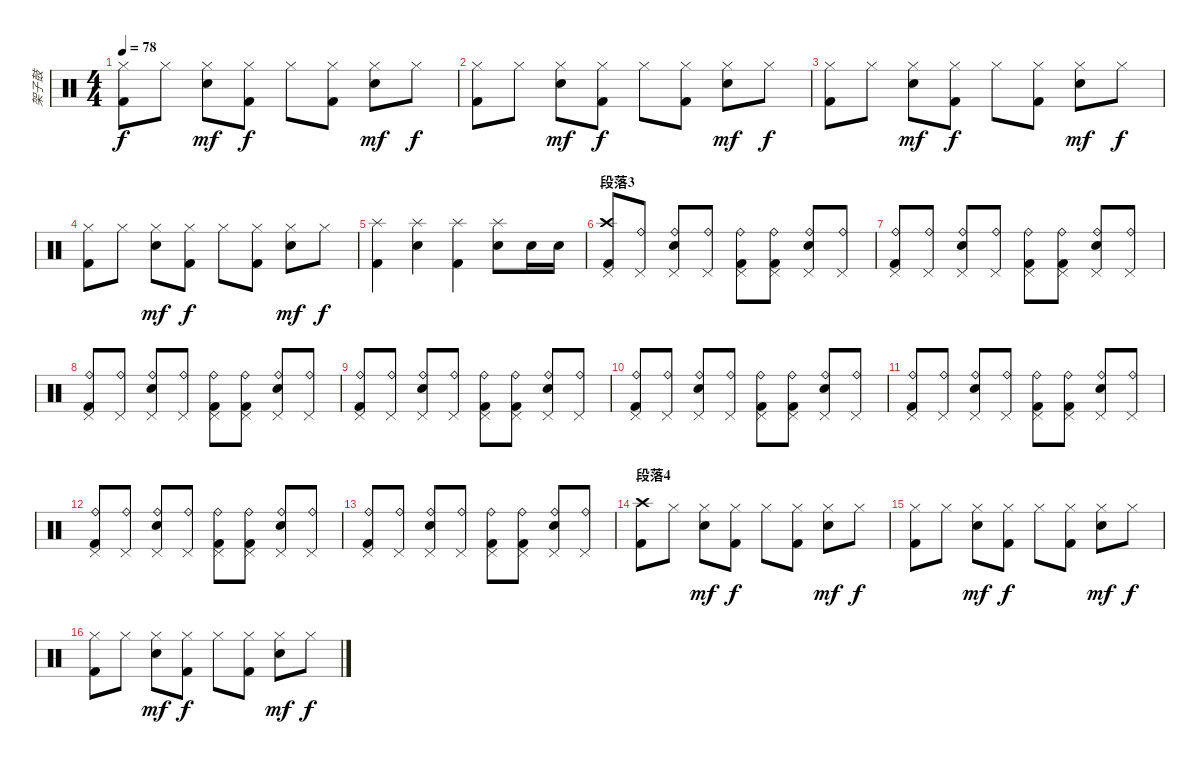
\track ("架子鼓" "架子鼓") {instrument percussion}
\staff {score}
\articulation defaults
\ts (4 4)
\tempo 78
\clef neutral
\ks c
("Hi-Hat (closed)" "Kick (hit) 2").8{dy f} "Hi-Hat (closed)".8 ("Hi-Hat (closed)" "Electric Snare (hit)").8{dy mf} ("Hi-Hat (closed)" "Kick (hit) 2").8{dy f} "Hi-Hat (closed)".8 ("Hi-Hat (closed)" "Kick (hit) 2").8 ("Hi-Hat (closed)" "Electric Snare (hit)").8{dy mf} "Hi-Hat (closed)".8{dy f} |
("Hi-Hat (closed)" "Kick (hit) 2").8 "Hi-Hat (closed)".8 ("Hi-Hat (closed)" "Electric Snare (hit)").8{dy mf} ("Hi-Hat (closed)" "Kick (hit) 2").8{dy f} "Hi-Hat (closed)".8 ("Hi-Hat (closed)" "Kick (hit) 2").8 ("Hi-Hat (closed)" "Electric Snare (hit)").8{dy mf} "Hi-Hat (closed)".8{dy f} |
("Hi-Hat (closed)" "Kick (hit) 2").8 "Hi-Hat (closed)".8 ("Hi-Hat (closed)" "Electric Snare (hit)").8{dy mf} ("Hi-Hat (closed)" "Kick (hit) 2").8{dy f} "Hi-Hat (closed)".8 ("Hi-Hat (closed)" "Kick (hit) 2").8 ("Hi-Hat (closed)" "Electric Snare (hit)").8{dy mf} "Hi-Hat (closed)".8{dy f} |
("Hi-Hat (closed)" "Kick (hit) 2").8 "Hi-Hat (closed)".8 ("Hi-Hat (closed)" "Electric Snare (hit)").8{dy mf} ("Hi-Hat (closed)" "Kick (hit) 2").8{dy f} "Hi-Hat (closed)".8 ("Hi-Hat (closed)" "Kick (hit) 2").8 ("Hi-Hat (closed)" "Electric Snare (hit)").8{dy mf} "Hi-Hat (closed)".8{dy f} |
("Splash (hit)" "Kick (hit) 2").4 ("Splash (hit)" "Electric Snare (hit)").4 ("Splash (hit)" "Kick (hit) 2").4 ("Splash (hit)" "Electric Snare (hit)").8 "Electric Snare (hit)".16 "Electric Snare (hit)".16 |
\section ("" "段落3")
("Crash high (hit)" "Pedal Hi-Hat (hit)" "Kick (hit) 2").8 ("Ride (bell)" "Pedal Hi-Hat (hit)").8 ("Ride (bell)" "Pedal Hi-Hat (hit)" "Electric Snare (hit)").8 ("Ride (bell)" "Pedal Hi-Hat (hit)").8 ("Ride (bell)" "Pedal Hi-Hat (hit)" "Kick (hit) 2").8 ("Ride (bell)" "Pedal Hi-Hat (hit)" "Kick (hit) 2").8 ("Ride (bell)" "Pedal Hi-Hat (hit)" "Electric Snare (hit)").8 ("Ride (bell)" "Pedal Hi-Hat (hit)").8 |
("Ride (bell)" "Pedal Hi-Hat (hit)" "Kick (hit) 2").8 ("Ride (bell)" "Pedal Hi-Hat (hit)").8 ("Ride (bell)" "Pedal Hi-Hat (hit)" "Electric Snare (hit)").8 ("Ride (bell)" "Pedal Hi-Hat (hit)").8 ("Ride (bell)" "Pedal Hi-Hat (hit)" "Kick (hit) 2").8 ("Ride (bell)" "Pedal Hi-Hat (hit)" "Kick (hit) 2").8 ("Ride (bell)" "Pedal Hi-Hat (hit)" "Electric Snare (hit)").8 ("Ride (bell)" "Pedal Hi-Hat (hit)").8 |
("Ride (bell)" "Pedal Hi-Hat (hit)" "Kick (hit) 2").8 ("Ride (bell)" "Pedal Hi-Hat (hit)").8 ("Ride (bell)" "Pedal Hi-Hat (hit)" "Electric Snare (hit)").8 ("Ride (bell)" "Pedal Hi-Hat (hit)").8 ("Ride (bell)" "Pedal Hi-Hat (hit)" "Kick (hit) 2").8 ("Ride (bell)" "Pedal Hi-Hat (hit)" "Kick (hit) 2").8 ("Ride (bell)" "Pedal Hi-Hat (hit)" "Electric Snare (hit)").8 ("Ride (bell)" "Pedal Hi-Hat (hit)").8 |
("Ride (bell)" "Pedal Hi-Hat (hit)" "Kick (hit) 2").8 ("Ride (bell)" "Pedal Hi-Hat (hit)").8 ("Ride (bell)" "Pedal Hi-Hat (hit)" "Electric Snare (hit)").8 ("Ride (bell)" "Pedal Hi-Hat (hit)").8 ("Ride (bell)" "Pedal Hi-Hat (hit)" "Kick (hit) 2").8 ("Ride (bell)" "Pedal Hi-Hat (hit)" "Kick (hit) 2").8 ("Ride (bell)" "Pedal Hi-Hat (hit)" "Electric Snare (hit)").8 ("Ride (bell)" "Pedal Hi-Hat (hit)").8 |
("Ride (bell)" "Pedal Hi-Hat (hit)" "Kick (hit) 2").8 ("Ride (bell)" "Pedal Hi-Hat (hit)").8 ("Ride (bell)" "Pedal Hi-Hat (hit)" "Electric Snare (hit)").8 ("Ride (bell)" "Pedal Hi-Hat (hit)").8 ("Ride (bell)" "Pedal Hi-Hat (hit)" "Kick (hit) 2").8 ("Ride (bell)" "Pedal Hi-Hat (hit)" "Kick (hit) 2").8 ("Ride (bell)" "Pedal Hi-Hat (hit)" "Electric Snare (hit)").8 ("Ride (bell)" "Pedal Hi-Hat (hit)").8 |
("Ride (bell)" "Pedal Hi-Hat (hit)" "Kick (hit) 2").8 ("Ride (bell)" "Pedal Hi-Hat (hit)").8 ("Ride (bell)" "Pedal Hi-Hat (hit)" "Electric Snare (hit)").8 ("Ride (bell)" "Pedal Hi-Hat (hit)").8 ("Ride (bell)" "Pedal Hi-Hat (hit)" "Kick (hit) 2").8 ("Ride (bell)" "Pedal Hi-Hat (hit)" "Kick (hit) 2").8 ("Ride (bell)" "Pedal Hi-Hat (hit)" "Electric Snare (hit)").8 ("Ride (bell)" "Pedal Hi-Hat (hit)").8 |
("Ride (bell)" "Pedal Hi-Hat (hit)" "Kick (hit) 2").8 ("Ride (bell)" "Pedal Hi-Hat (hit)").8 ("Ride (bell)" "Pedal Hi-Hat (hit)" "Electric Snare (hit)").8 ("Ride (bell)" "Pedal Hi-Hat (hit)").8 ("Ride (bell)" "Pedal Hi-Hat (hit)" "Kick (hit) 2").8 ("Ride (bell)" "Pedal Hi-Hat (hit)" "Kick (hit) 2").8 ("Ride (bell)" "Pedal Hi-Hat (hit)" "Electric Snare (hit)").8 ("Ride (bell)" "Pedal Hi-Hat (hit)").8 |
("Ride (bell)" "Pedal Hi-Hat (hit)" "Kick (hit) 2").8 ("Ride (bell)" "Pedal Hi-Hat (hit)").8 ("Ride (bell)" "Pedal Hi-Hat (hit)" "Electric Snare (hit)").8 ("Ride (bell)" "Pedal Hi-Hat (hit)").8 ("Ride (bell)" "Pedal Hi-Hat (hit)" "Kick (hit) 2").8 ("Ride (bell)" "Pedal Hi-Hat (hit)" "Kick (hit) 2").8 ("Ride (bell)" "Pedal Hi-Hat (hit)" "Electric Snare (hit)").8 ("Ride (bell)" "Pedal Hi-Hat (hit)").8 |
\section ("" "段落4")
("Crash high (hit)" "Kick (hit) 2").8 "Hi-Hat (closed)".8 ("Hi-Hat (closed)" "Electric Snare (hit)").8{dy mf} ("Hi-Hat (closed)" "Kick (hit) 2").8{dy f} "Hi-Hat (closed)".8 ("Hi-Hat (closed)" "Kick (hit) 2").8 ("Hi-Hat (closed)" "Electric Snare (hit)").8{dy mf} "Hi-Hat (closed)".8{dy f} |
("Hi-Hat (closed)" "Kick (hit) 2").8 "Hi-Hat (closed)".8 ("Hi-Hat (closed)" "Electric Snare (hit)").8{dy mf} ("Hi-Hat (closed)" "Kick (hit) 2").8{dy f} "Hi-Hat (closed)".8 ("Hi-Hat (closed)" "Kick (hit) 2").8 ("Hi-Hat (closed)" "Electric Snare (hit)").8{dy mf} "Hi-Hat (closed)".8{dy f} |
("Hi-Hat (closed)" "Kick (hit) 2").8 "Hi-Hat (closed)".8 ("Hi-Hat (closed)" "Electric Snare (hit)").8{dy mf} ("Hi-Hat (closed)" "Kick (hit) 2").8{dy f} "Hi-Hat (closed)".8 ("Hi-Hat (closed)" "Kick (hit) 2").8 ("Hi-Hat (closed)" "Electric Snare (hit)").8{dy mf} "Hi-Hat (closed)".8{dy f}
